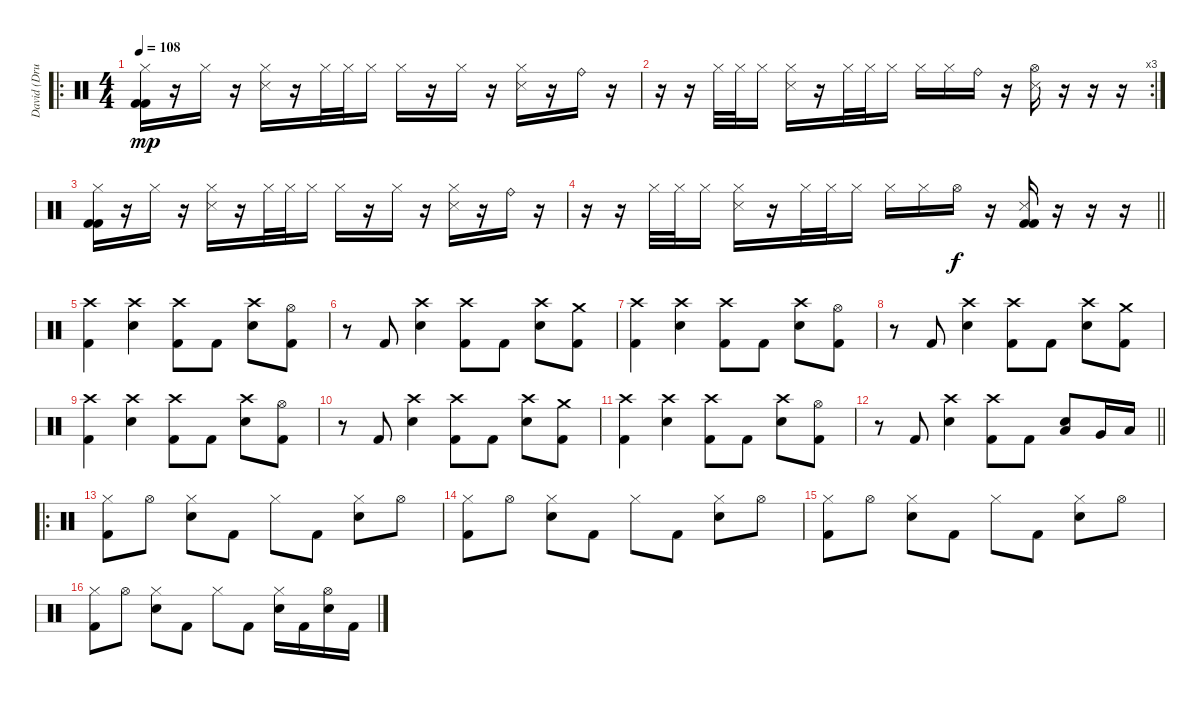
\track ("David (Drum)" "David (Dru") {instrument percussion}
\staff {score}
\articulation defaults
\ro
\ts (4 4)
\section ("" "")
\tempo 108
\clef neutral
\ks c
("Hi-Hat (closed)" "Kick (hit) 2" "Kick (hit) 2").16{dy mp volume 7} r.16 "Hi-Hat (closed)".16 r.16 ("Hi-Hat (closed)" "Snare (side stick) 3").16 r.16 "Hi-Hat (closed)".32 "Hi-Hat (closed)".32 "Hi-Hat (closed)".16 "Hi-Hat (closed)".16 r.16 "Hi-Hat (closed)".16 r.16 ("Hi-Hat (closed)" "Snare (side stick) 3").16 r.16 "Ride (bell)".16 r.16 |
\rc 3
r.16{volume 7} r.16 "Hi-Hat (closed)".32 "Hi-Hat (closed)".32 "Hi-Hat (closed)".16 ("Hi-Hat (closed)" "Snare (side stick) 3").16 r.16 "Hi-Hat (closed)".32 "Hi-Hat (closed)".32 "Hi-Hat (closed)".16 "Hi-Hat (closed)".16 "Hi-Hat (closed)".16 "Ride (bell)".16 r.16 ("Hi-Hat (open)" "Snare (side stick) 3").16 r.16 r.16 r.16 |
("Hi-Hat (closed)" "Kick (hit) 2" "Kick (hit) 2").16{volume 7} r.16 "Hi-Hat (closed)".16 r.16 ("Hi-Hat (closed)" "Snare (side stick) 3").16 r.16 "Hi-Hat (closed)".32 "Hi-Hat (closed)".32 "Hi-Hat (closed)".16 "Hi-Hat (closed)".16 r.16 "Hi-Hat (closed)".16 r.16 ("Hi-Hat (closed)" "Snare (side stick) 3").16 r.16 "Ride (bell)".16 r.16 |
\barLineRight lightlight
r.16{volume 7} r.16 "Hi-Hat (closed)".32 "Hi-Hat (closed)".32 "Hi-Hat (closed)".16 ("Hi-Hat (closed)" "Snare (side stick) 3").16 r.16 "Hi-Hat (closed)".32 "Hi-Hat (closed)".32 "Hi-Hat (closed)".16 "Hi-Hat (closed)".16 "Hi-Hat (closed)".16 "Hi-Hat (open)".16{dy f} r.16 ("Snare (side stick) 3" "Kick (hit) 2" "Kick (hit) 2").16{volume 13} r.16 r.16 r.16 |
\section ("" "")
("Crash high (hit)" "Kick (hit) 2").4 ("Crash high (hit)" "Electric Snare (hit)").4 ("Crash high (hit)" "Kick (hit) 2").8 "Kick (hit) 2".8 ("Crash high (hit)" "Electric Snare (hit)").8 ("Hi-Hat (open)" "Kick (hit) 2").8 |
r.8 "Kick (hit) 2".8 ("Crash high (hit)" "Electric Snare (hit)").4 ("Crash high (hit)" "Kick (hit) 2").8 "Kick (hit) 2".8 ("Crash high (hit)" "Electric Snare (hit)").8 ("Crash medium (hit)" "Kick (hit) 2").8 |
("Crash high (hit)" "Kick (hit) 2").4 ("Crash high (hit)" "Electric Snare (hit)").4 ("Crash high (hit)" "Kick (hit) 2").8 "Kick (hit) 2".8 ("Crash high (hit)" "Electric Snare (hit)").8 ("Hi-Hat (open)" "Kick (hit) 2").8 |
r.8 "Kick (hit) 2".8 ("Crash high (hit)" "Electric Snare (hit)").4 ("Crash high (hit)" "Kick (hit) 2").8 "Kick (hit) 2".8 ("Crash high (hit)" "Electric Snare (hit)").8 ("Crash medium (hit)" "Kick (hit) 2").8 |
("Crash high (hit)" "Kick (hit) 2").4 ("Crash high (hit)" "Electric Snare (hit)").4 ("Crash high (hit)" "Kick (hit) 2").8 "Kick (hit) 2".8 ("Crash high (hit)" "Electric Snare (hit)").8 ("Hi-Hat (open)" "Kick (hit) 2").8 |
r.8 "Kick (hit) 2".8 ("Crash high (hit)" "Electric Snare (hit)").4 ("Crash high (hit)" "Kick (hit) 2").8 "Kick (hit) 2".8 ("Crash high (hit)" "Electric Snare (hit)").8 ("Crash medium (hit)" "Kick (hit) 2").8 |
("Crash high (hit)" "Kick (hit) 2").4 ("Crash high (hit)" "Electric Snare (hit)").4 ("Crash high (hit)" "Kick (hit) 2").8 "Kick (hit) 2".8 ("Crash high (hit)" "Electric Snare (hit)").8 ("Hi-Hat (open)" "Kick (hit) 2").8 |
\barLineRight lightlight
r.8 "Kick (hit) 2".8 ("Crash high (hit)" "Electric Snare (hit)").4 ("Crash high (hit)" "Kick (hit) 2").8 "Kick (hit) 2".8 ("Low Tom (hit)" "Electric Snare (hit)").8 "Very Low Tom (hit)".16 "Low Floor Tom (hit)".16 |
\ro
\section ("" "")
("Hi-Hat (closed)" "Kick (hit) 2").8 "Hi-Hat (open)".8 ("Hi-Hat (closed)" "Electric Snare (hit)").8 "Kick (hit) 2".8 "Hi-Hat (closed)".8 "Kick (hit) 2".8 ("Hi-Hat (closed)" "Electric Snare (hit)").8 "Hi-Hat (open)".8 |
("Hi-Hat (closed)" "Kick (hit) 2").8 "Hi-Hat (open)".8 ("Hi-Hat (closed)" "Electric Snare (hit)").8 "Kick (hit) 2".8 "Hi-Hat (closed)".8 "Kick (hit) 2".8 ("Hi-Hat (closed)" "Electric Snare (hit)").8 "Hi-Hat (open)".8 |
("Hi-Hat (closed)" "Kick (hit) 2").8 "Hi-Hat (open)".8 ("Hi-Hat (closed)" "Electric Snare (hit)").8 "Kick (hit) 2".8 "Hi-Hat (closed)".8 "Kick (hit) 2".8 ("Hi-Hat (closed)" "Electric Snare (hit)").8 "Hi-Hat (open)".8 |
("Hi-Hat (closed)" "Kick (hit) 2").8 "Hi-Hat (open)".8 ("Hi-Hat (closed)" "Electric Snare (hit)").8 "Kick (hit) 2".8 "Hi-Hat (closed)".8 "Kick (hit) 2".8 ("Hi-Hat (closed)" "Electric Snare (hit)").16 "Kick (hit) 2".16 ("Hi-Hat (open)" "Electric Snare (hit)").16 "Kick (hit) 2".16
